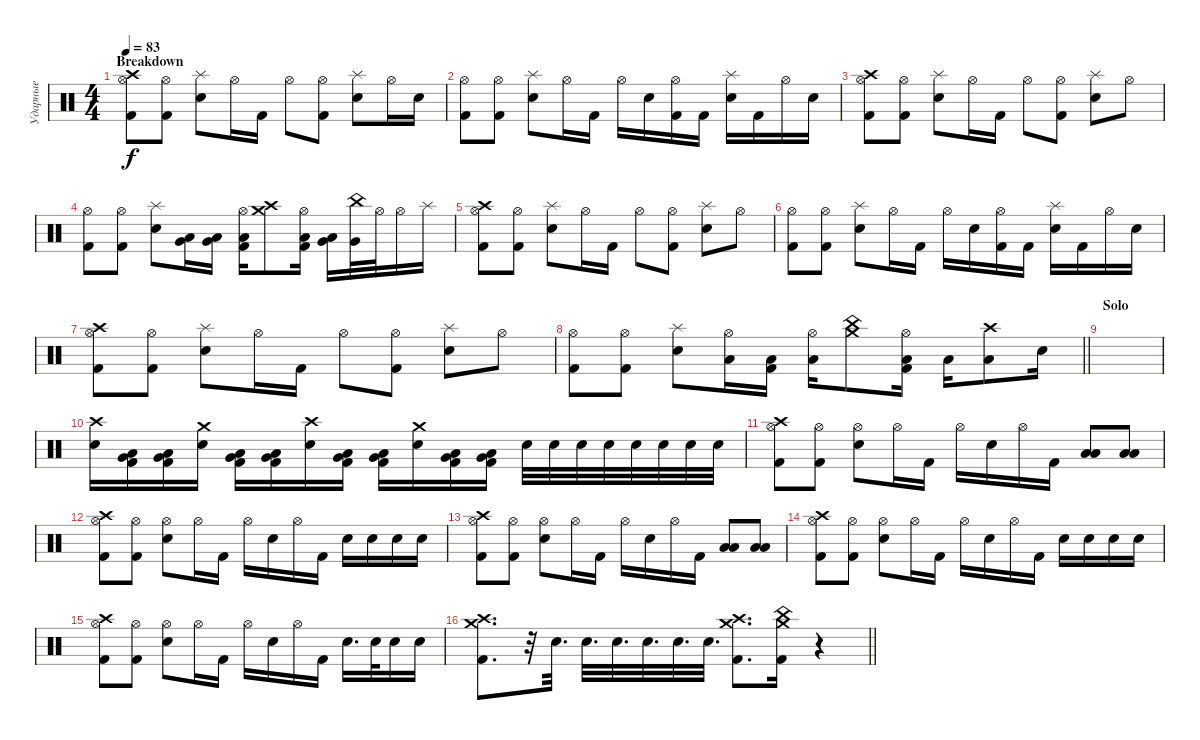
\track ("Ударные" "Ударные") {instrument percussion}
\staff {score}
\articulation defaults
\ts (4 4)
\section ("" "Breakdown")
\tempo 83
\clef neutral
\ks c
("Crash high (hit)" "Hi-Hat (open)" "Kick (hit) 2").8{dy f} ("Hi-Hat (open)" "Kick (hit) 2").8 ("Splash (hit)" "Snare (hit) 2").8 "Hi-Hat (open)".16 "Kick (hit) 2".16 "Hi-Hat (open)".8 ("Hi-Hat (open)" "Kick (hit) 2").8 ("Splash (hit)" "Snare (hit) 2").8 "Hi-Hat (open)".16 "Snare (hit) 2".16 |
("Hi-Hat (open)" "Kick (hit) 2").8 ("Hi-Hat (open)" "Kick (hit) 2").8 ("Splash (hit)" "Snare (hit) 2").8 "Hi-Hat (open)".16 "Kick (hit) 2".16 "Hi-Hat (open)".16 "Snare (hit) 2".16 ("Hi-Hat (open)" "Kick (hit) 2").16 "Kick (hit) 2".16 ("Splash (hit)" "Snare (hit) 2").16 "Kick (hit) 2".16 "Hi-Hat (open)".16 "Snare (hit) 2".16 |
("Crash high (hit)" "Hi-Hat (open)" "Kick (hit) 2").8 ("Hi-Hat (open)" "Kick (hit) 2").8 ("Splash (hit)" "Snare (hit) 2").8 "Hi-Hat (open)".16 "Kick (hit) 2".16 "Hi-Hat (open)".8 ("Hi-Hat (open)" "Kick (hit) 2").8 ("Splash (hit)" "Snare (hit) 2").8 "Hi-Hat (open)".8 |
("Hi-Hat (open)" "Kick (hit) 2").8 ("Hi-Hat (open)" "Kick (hit) 2").8 ("Splash (hit)" "Snare (hit) 2").8 ("Low Tom (hit)" "Very Low Tom (hit)").16 ("Low Tom (hit)" "Very Low Tom (hit)").16 ("Hi-Hat (open)" "Low Floor Tom (hit)" "Kick (hit) 2").16 ("Crash high (hit)" "Crash medium (hit)").8 ("Hi-Hat (open)" "Low Tom (hit)" "Kick (hit) 2").16 ("Low Tom (hit)" "Very Low Tom (hit)").16 ("China (hit)" "Very Low Tom (hit)").32 "Hi-Hat (open)".32 "Hi-Hat (open)".16 "Splash (hit)".16 |
("Crash high (hit)" "Hi-Hat (open)" "Kick (hit) 2").8 ("Hi-Hat (open)" "Kick (hit) 2").8 ("Splash (hit)" "Snare (hit) 2").8 "Hi-Hat (open)".16 "Kick (hit) 2".16 "Hi-Hat (open)".8 ("Hi-Hat (open)" "Kick (hit) 2").8 ("Splash (hit)" "Snare (hit) 2").8 "Hi-Hat (open)".8 |
("Hi-Hat (open)" "Kick (hit) 2").8 ("Hi-Hat (open)" "Kick (hit) 2").8 ("Splash (hit)" "Snare (hit) 2").8 "Hi-Hat (open)".16 "Kick (hit) 2".16 "Hi-Hat (open)".16 "Snare (hit) 2".16 ("Hi-Hat (open)" "Kick (hit) 2").16 "Kick (hit) 2".16 ("Splash (hit)" "Snare (hit) 2").16 "Kick (hit) 2".16 "Hi-Hat (open)".16 "Snare (hit) 2".16 |
("Crash high (hit)" "Hi-Hat (open)" "Kick (hit) 2").8 ("Hi-Hat (open)" "Kick (hit) 2").8 ("Splash (hit)" "Snare (hit) 2").8 "Hi-Hat (open)".16 "Kick (hit) 2".16 "Hi-Hat (open)".8 ("Hi-Hat (open)" "Kick (hit) 2").8 ("Splash (hit)" "Snare (hit) 2").8 "Hi-Hat (open)".8 |
\barLineRight lightlight
("Hi-Hat (open)" "Kick (hit) 2").8 ("Hi-Hat (open)" "Kick (hit) 2").8 ("Splash (hit)" "Snare (hit) 2").8 ("Hi-Hat (open)" "Low Tom (hit)").16 ("Low Tom (hit)" "Kick (hit) 2").16 ("Hi-Hat (open)" "Low Floor Tom (hit)").16 ("China (hit)" "Crash medium (hit)").8 ("Hi-Hat (open)" "Low Tom (hit)" "Kick (hit) 2").16 "Low Tom (hit)".16 ("Crash high (hit)" "Low Floor Tom (hit)").8 "Snare (hit) 2".16 |
\section ("" "Solo")
|
("Crash high (hit)" "Snare (hit) 2").16 ("Low Tom (hit)" "Very Low Tom (hit)" "Kick (hit) 2").16 ("Low Tom (hit)" "Very Low Tom (hit)" "Kick (hit) 2").16 ("Crash medium (hit)" "Snare (hit) 2").16 ("Low Tom (hit)" "Very Low Tom (hit)" "Kick (hit) 2").16 ("Low Tom (hit)" "Very Low Tom (hit)" "Kick (hit) 2").16 ("Crash high (hit)" "Snare (hit) 2").16 ("Low Tom (hit)" "Very Low Tom (hit)" "Kick (hit) 2").16 ("Low Tom (hit)" "Very Low Tom (hit)" "Kick (hit) 2").16 ("Crash medium (hit)" "Snare (hit) 2").16 ("Low Tom (hit)" "Very Low Tom (hit)" "Kick (hit) 2").16 ("Low Tom (hit)" "Very Low Tom (hit)" "Kick (hit) 2").16 "Snare (hit) 2".32 "Snare (hit) 2".32 "Snare (hit) 2".32 "Snare (hit) 2".32 "Snare (hit) 2".32 "Snare (hit) 2".32 "Snare (hit) 2".32 "Snare (hit) 2".32 |
("Crash high (hit)" "Hi-Hat (open)" "Kick (hit) 2").8 ("Hi-Hat (open)" "Kick (hit) 2").8 ("Hi-Hat (open)" "Snare (hit) 2").8 "Hi-Hat (open)".16 "Kick (hit) 2".16 "Hi-Hat (open)".16 "Snare (hit) 2".16 "Hi-Hat (open)".16 "Kick (hit) 2".16 ("Low Tom (hit)" "Low Floor Tom (hit)").8 ("Low Tom (hit)" "Low Floor Tom (hit)").8 |
("Crash high (hit)" "Hi-Hat (open)" "Kick (hit) 2").8 ("Hi-Hat (open)" "Kick (hit) 2").8 ("Hi-Hat (open)" "Snare (hit) 2").8 "Hi-Hat (open)".16 "Kick (hit) 2".16 "Hi-Hat (open)".16 "Snare (hit) 2".16 "Hi-Hat (open)".16 "Kick (hit) 2".16 "Snare (hit) 2".16 "Snare (hit) 2".16 "Snare (hit) 2".16 "Snare (hit) 2".16 |
("Crash high (hit)" "Hi-Hat (open)" "Kick (hit) 2").8 ("Hi-Hat (open)" "Kick (hit) 2").8 ("Hi-Hat (open)" "Snare (hit) 2").8 "Hi-Hat (open)".16 "Kick (hit) 2".16 "Hi-Hat (open)".16 "Snare (hit) 2".16 "Hi-Hat (open)".16 "Kick (hit) 2".16 ("Low Tom (hit)" "Low Floor Tom (hit)").8 ("Low Tom (hit)" "Low Floor Tom (hit)").8 |
("Crash high (hit)" "Hi-Hat (open)" "Kick (hit) 2").8 ("Hi-Hat (open)" "Kick (hit) 2").8 ("Hi-Hat (open)" "Snare (hit) 2").8 "Hi-Hat (open)".16 "Kick (hit) 2".16 "Hi-Hat (open)".16 "Snare (hit) 2".16 "Hi-Hat (open)".16 "Kick (hit) 2".16 "Snare (hit) 2".16 "Snare (hit) 2".16 "Snare (hit) 2".16 "Snare (hit) 2".16 |
("Crash high (hit)" "Hi-Hat (open)" "Kick (hit) 2").8 ("Hi-Hat (open)" "Kick (hit) 2").8 ("Hi-Hat (open)" "Snare (hit) 2").8 "Hi-Hat (open)".16 "Kick (hit) 2".16 "Hi-Hat (open)".16 "Snare (hit) 2".16 "Hi-Hat (open)".16 "Kick (hit) 2".16 "Snare (hit) 2".16{d} "Snare (hit) 2".32 "Snare (hit) 2".16 "Snare (hit) 2".16 |
\barLineRight lightlight
("Crash high (hit)" "Crash medium (hit)" "Kick (hit) 2").8{d} r.32 "Snare (hit) 2".32{d} "Snare (hit) 2".32{d} "Snare (hit) 2".32{d} "Snare (hit) 2".32{d} "Snare (hit) 2".32{d} "Snare (hit) 2".32{d} ("Crash high (hit)" "Crash medium (hit)" "Kick (hit) 2").8{d} ("Crash medium (hit)" "China (hit)" "Kick (hit) 2").16 r.4
